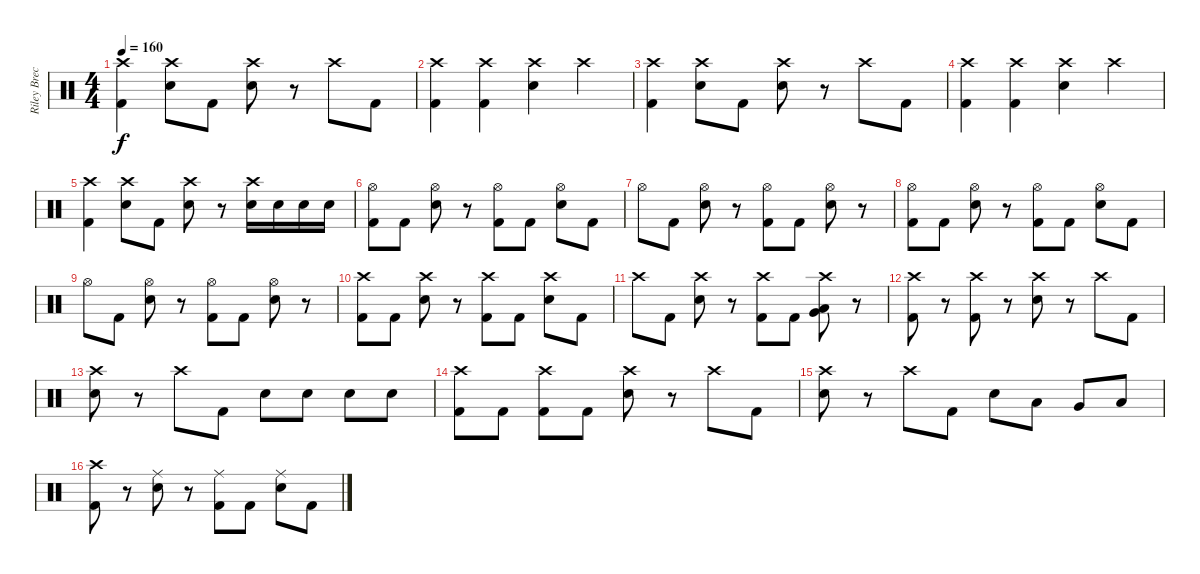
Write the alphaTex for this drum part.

\track ("Riley Breckenridge" "Riley Brec") {instrument percussion}
\staff {score}
\articulation defaults
\ts (4 4)
\tempo 160
\clef neutral
\ks c
("Kick (hit) 2" "Crash high (hit)").4{dy f} ("Electric Snare (hit)" "Crash high (hit)").8 "Kick (hit) 2".8 ("Electric Snare (hit)" "Crash high (hit)").8 r.8 "Crash high (hit)".8 "Kick (hit) 2".8 |
("Kick (hit) 2" "Crash high (hit)").4 ("Kick (hit) 2" "Crash high (hit)").4 ("Electric Snare (hit)" "Crash high (hit)").4 "Crash high (hit)".4 |
("Kick (hit) 2" "Crash high (hit)").4 ("Electric Snare (hit)" "Crash high (hit)").8 "Kick (hit) 2".8 ("Electric Snare (hit)" "Crash high (hit)").8 r.8 "Crash high (hit)".8 "Kick (hit) 2".8 |
("Kick (hit) 2" "Crash high (hit)").4 ("Kick (hit) 2" "Crash high (hit)").4 ("Electric Snare (hit)" "Crash high (hit)").4 "Crash high (hit)".4 |
("Kick (hit) 2" "Crash high (hit)").4 ("Electric Snare (hit)" "Crash high (hit)").8 "Kick (hit) 2".8 ("Electric Snare (hit)" "Crash high (hit)").8 r.8 ("Electric Snare (hit)" "Crash high (hit)").16 "Electric Snare (hit)".16 "Electric Snare (hit)".16 "Electric Snare (hit)".16 |
("Kick (hit) 2" "Hi-Hat (open)").8 "Kick (hit) 2".8 ("Electric Snare (hit)" "Hi-Hat (open)").8 r.8 ("Kick (hit) 2" "Hi-Hat (open)").8 "Kick (hit) 2".8 ("Electric Snare (hit)" "Hi-Hat (open)").8 "Kick (hit) 2".8 |
"Hi-Hat (open)".8 "Kick (hit) 2".8 ("Electric Snare (hit)" "Hi-Hat (open)").8 r.8 ("Kick (hit) 2" "Hi-Hat (open)").8 "Kick (hit) 2".8 ("Electric Snare (hit)" "Hi-Hat (open)").8 r.8 |
("Kick (hit) 2" "Hi-Hat (open)").8 "Kick (hit) 2".8 ("Electric Snare (hit)" "Hi-Hat (open)").8 r.8 ("Kick (hit) 2" "Hi-Hat (open)").8 "Kick (hit) 2".8 ("Electric Snare (hit)" "Hi-Hat (open)").8 "Kick (hit) 2".8 |
"Hi-Hat (open)".8 "Kick (hit) 2".8 ("Electric Snare (hit)" "Hi-Hat (open)").8 r.8 ("Kick (hit) 2" "Hi-Hat (open)").8 "Kick (hit) 2".8 ("Electric Snare (hit)" "Hi-Hat (open)").8 r.8 |
("Kick (hit) 2" "Crash high (hit)").8 "Kick (hit) 2".8 ("Electric Snare (hit)" "Crash high (hit)").8 r.8 ("Kick (hit) 2" "Crash high (hit)").8 "Kick (hit) 2".8 ("Electric Snare (hit)" "Crash high (hit)").8 "Kick (hit) 2".8 |
"Crash high (hit)".8 "Kick (hit) 2".8 ("Electric Snare (hit)" "Crash high (hit)").8 r.8 ("Kick (hit) 2" "Crash high (hit)").8 "Kick (hit) 2".8 ("Very Low Tom (hit)" "Low Floor Tom (hit)" "Crash high (hit)").8 r.8 |
("Kick (hit) 2" "Crash high (hit)").8 r.8 ("Kick (hit) 2" "Crash high (hit)").8 r.8 ("Electric Snare (hit)" "Crash high (hit)").8 r.8 "Crash high (hit)".8 "Kick (hit) 2".8 |
("Electric Snare (hit)" "Crash high (hit)").8 r.8 "Crash high (hit)".8 "Kick (hit) 2".8 "Electric Snare (hit)".8 "Electric Snare (hit)".8 "Electric Snare (hit)".8 "Electric Snare (hit)".8 |
("Kick (hit) 2" "Crash high (hit)").8 "Kick (hit) 2".8 ("Kick (hit) 2" "Crash high (hit)").8 "Kick (hit) 2".8 ("Electric Snare (hit)" "Crash high (hit)").8 r.8 "Crash high (hit)".8 "Kick (hit) 2".8 |
("Electric Snare (hit)" "Crash high (hit)").8 r.8 "Crash high (hit)".8 "Kick (hit) 2".8 "Electric Snare (hit)".8 "Low Tom (hit)".8 "Very Low Tom (hit)".8 "Low Floor Tom (hit)".8 |
("Kick (hit) 2" "Crash high (hit)").8 r.8 ("Electric Snare (hit)" "Ride (middle)").8 r.8 ("Kick (hit) 2" "Ride (middle)").8 "Kick (hit) 2".8 ("Electric Snare (hit)" "Ride (middle)").8 "Kick (hit) 2".8
